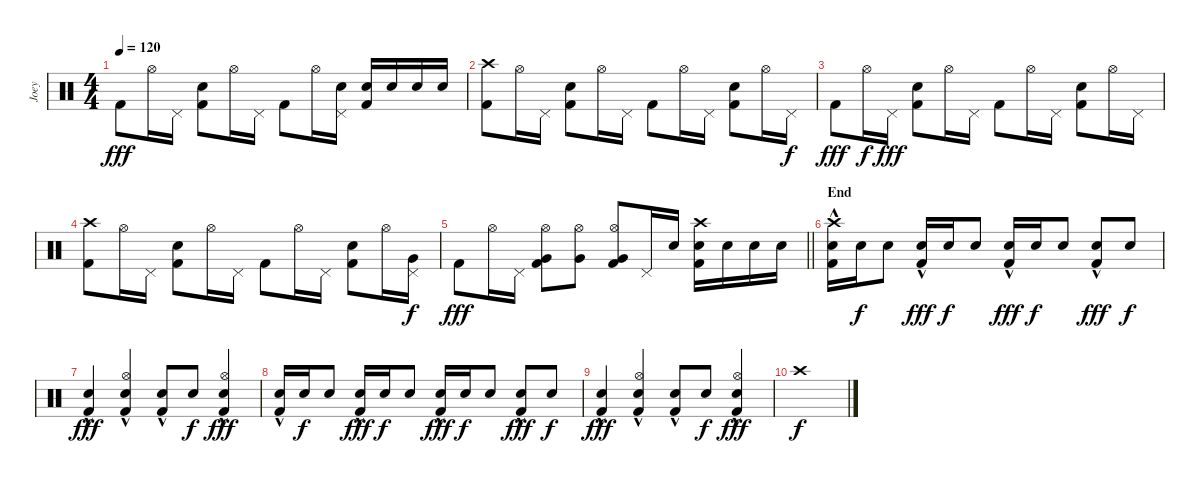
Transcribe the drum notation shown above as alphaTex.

\track ("Joey" "Joey") {instrument percussion}
\staff {score}
\articulation defaults
\ts (4 4)
\tempo 120
\clef neutral
\ks c "Kick (hit) 2".8{dy fff} "Hi-Hat (open)".16 "Pedal Hi-Hat (hit)".16
("Electric Snare (hit)" "Kick (hit) 2").8 "Hi-Hat (open)".16 "Pedal Hi-Hat (hit)".16 "Kick (hit) 2".8 "Hi-Hat (open)".16 ("Pedal Hi-Hat (hit)" "Electric Snare (hit)").16 ("Electric Snare (hit)" "Kick (hit) 2").16 "Electric Snare (hit)".16 "Electric Snare (hit)".16 "Electric Snare (hit)".16 |
("Crash high (hit)" "Kick (hit) 2").8 "Hi-Hat (open)".16 "Pedal Hi-Hat (hit)".16 ("Electric Snare (hit)" "Kick (hit) 2").8 "Hi-Hat (open)".16 "Pedal Hi-Hat (hit)".16 "Kick (hit) 2".8 "Hi-Hat (open)".16 "Pedal Hi-Hat (hit)".16 ("Electric Snare (hit)" "Kick (hit) 2").8 "Hi-Hat (open)".16 "Pedal Hi-Hat (hit)".16{dy f} |
"Kick (hit) 2".8{dy fff} "Hi-Hat (open)".16{dy f} "Pedal Hi-Hat (hit)".16{dy fff} ("Electric Snare (hit)" "Kick (hit) 2").8 "Hi-Hat (open)".16 "Pedal Hi-Hat (hit)".16 "Kick (hit) 2".8 "Hi-Hat (open)".16 "Pedal Hi-Hat (hit)".16 ("Electric Snare (hit)" "Kick (hit) 2").8 "Hi-Hat (open)".16 "Pedal Hi-Hat (hit)".16 |
("Crash high (hit)" "Kick (hit) 2").8 "Hi-Hat (open)".16 "Pedal Hi-Hat (hit)".16 ("Electric Snare (hit)" "Kick (hit) 2").8 "Hi-Hat (open)".16 "Pedal Hi-Hat (hit)".16 "Kick (hit) 2".8 "Hi-Hat (open)".16 "Pedal Hi-Hat (hit)".16 ("Electric Snare (hit)" "Kick (hit) 2").8 "Hi-Hat (open)".16 ("Pedal Hi-Hat (hit)" "Very Low Tom (hit)").16{dy f} |
\barLineRight lightlight "Kick (hit) 2".8{dy fff} "Hi-Hat (open)".16 "Pedal Hi-Hat (hit)".16
("Hi-Hat (open)" "Very Low Tom (hit)" "Kick (hit) 2").8 ("Hi-Hat (open)" "Very Low Tom (hit)").8 ("Hi-Hat (open)" "Very Low Tom (hit)" "Kick (hit) 2").8 "Pedal Hi-Hat (hit)".16 "Electric Snare (hit)".16 ("Crash high (hit)" "Electric Snare (hit)" "Kick (hit) 2").16 "Electric Snare (hit)".16 "Electric Snare (hit)".16 "Electric Snare (hit)".16 |
\section ("" "End")
("Crash high (hit)" "Electric Snare (hit)"{hac} "Kick (hit) 2"{hac}).16 "Electric Snare (hit)".16{dy f} "Electric Snare (hit)".8 ("Electric Snare (hit)"{hac} "Kick (hit) 2"{hac}).16{dy fff} "Electric Snare (hit)".16{dy f} "Electric Snare (hit)".8 ("Electric Snare (hit)"{hac} "Kick (hit) 2"{hac}).16{dy fff} "Electric Snare (hit)".16{dy f} "Electric Snare (hit)".8 ("Electric Snare (hit)" "Kick (hit) 2"{hac}).8{dy fff} "Electric Snare (hit)".8{dy f} |
("Electric Snare (hit)" "Kick (hit) 2"{hac}).4{dy fff} ("Hi-Hat (open)" "Electric Snare (hit)" "Kick (hit) 2"{hac}).4 ("Electric Snare (hit)" "Kick (hit) 2"{hac}).8 "Electric Snare (hit)".8{dy f} ("Hi-Hat (open)" "Electric Snare (hit)"{hac} "Kick (hit) 2"{hac}).4{dy fff} |
("Electric Snare (hit)"{hac} "Kick (hit) 2"{hac}).16 "Electric Snare (hit)".16{dy f} "Electric Snare (hit)".8 ("Electric Snare (hit)"{hac} "Kick (hit) 2"{hac}).16{dy fff} "Electric Snare (hit)".16{dy f} "Electric Snare (hit)".8 ("Electric Snare (hit)"{hac} "Kick (hit) 2"{hac}).16{dy fff} "Electric Snare (hit)".16{dy f} "Electric Snare (hit)".8 ("Electric Snare (hit)" "Kick (hit) 2"{hac}).8{dy fff} "Electric Snare (hit)".8{dy f} |
("Electric Snare (hit)" "Kick (hit) 2"{hac}).4{dy fff} ("Hi-Hat (open)" "Electric Snare (hit)" "Kick (hit) 2"{hac}).4 ("Electric Snare (hit)" "Kick (hit) 2"{hac}).8 "Electric Snare (hit)".8{dy f} ("Hi-Hat (open)" "Electric Snare (hit)"{hac} "Kick (hit) 2"{hac}).4{dy fff} |
"Crash high (hit)".1{dy f}
